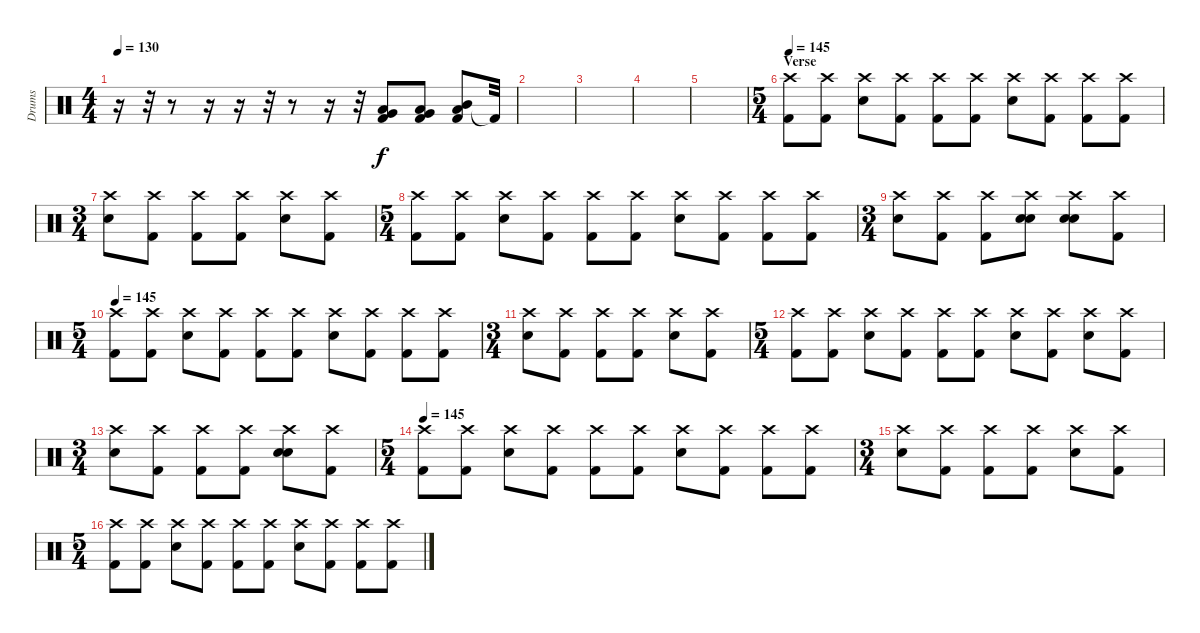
\track ("Drums" "Drums") {instrument percussion}
\staff {score}
\articulation defaults
\ts (4 4)
\tempo 130
\clef neutral
\ks c
r.16{dy f} r.32 r.8 r.16 r.16 r.32 r.8 r.16 r.32 ("Low Tom (hit)" "Very Low Tom (hit)" "Kick (hit) 2").8 ("Low Tom (hit)" "Very Low Tom (hit)" "Kick (hit) 2").8 ("Mid Tom (hit)" "Low Tom (hit)" "Kick (hit) 2").8 "Kick (hit) 2"{t}.32 |
|
|
|
|
\ts (5 4)
\section ("" "Verse")
\tempo 145
("Crash high (hit)" "Kick (hit) 2").8 ("Crash high (hit)" "Kick (hit) 2").8 ("Crash high (hit)" "Electric Snare (hit)").8 ("Crash high (hit)" "Kick (hit) 2").8 ("Crash high (hit)" "Kick (hit) 2").8 ("Crash high (hit)" "Kick (hit) 2").8 ("Crash high (hit)" "Electric Snare (hit)").8 ("Crash high (hit)" "Kick (hit) 2").8 ("Crash high (hit)" "Kick (hit) 2").8 ("Crash high (hit)" "Kick (hit) 2").8 |
\ts (3 4)
("Crash high (hit)" "Electric Snare (hit)").8 ("Crash high (hit)" "Kick (hit) 2").8 ("Crash high (hit)" "Kick (hit) 2").8 ("Crash high (hit)" "Kick (hit) 2").8 ("Crash high (hit)" "Electric Snare (hit)").8 ("Crash high (hit)" "Kick (hit) 2").8 |
\ts (5 4)
("Crash high (hit)" "Kick (hit) 2").8 ("Crash high (hit)" "Kick (hit) 2").8 ("Crash high (hit)" "Electric Snare (hit)").8 ("Crash high (hit)" "Kick (hit) 2").8 ("Crash high (hit)" "Kick (hit) 2").8 ("Crash high (hit)" "Kick (hit) 2").8 ("Crash high (hit)" "Electric Snare (hit)").8 ("Crash high (hit)" "Kick (hit) 2").8 ("Crash high (hit)" "Kick (hit) 2").8 ("Crash high (hit)" "Kick (hit) 2").8 |
\ts (3 4)
("Crash high (hit)" "Electric Snare (hit)").8 ("Crash high (hit)" "Kick (hit) 2").8 ("Crash high (hit)" "Kick (hit) 2").8 ("Crash high (hit)" "Electric Snare (hit)" "Snare (hit) 2").8 ("Crash high (hit)" "Electric Snare (hit)" "Snare (hit) 2").8 ("Crash high (hit)" "Kick (hit) 2").8 |
\ts (5 4)
\tempo 145
("Crash high (hit)" "Kick (hit) 2").8 ("Crash high (hit)" "Kick (hit) 2").8 ("Crash high (hit)" "Electric Snare (hit)").8 ("Crash high (hit)" "Kick (hit) 2").8 ("Crash high (hit)" "Kick (hit) 2").8 ("Crash high (hit)" "Kick (hit) 2").8 ("Crash high (hit)" "Electric Snare (hit)").8 ("Crash high (hit)" "Kick (hit) 2").8 ("Crash high (hit)" "Kick (hit) 2").8 ("Crash high (hit)" "Kick (hit) 2").8 |
\ts (3 4)
("Crash high (hit)" "Electric Snare (hit)").8 ("Crash high (hit)" "Kick (hit) 2").8 ("Crash high (hit)" "Kick (hit) 2").8 ("Crash high (hit)" "Kick (hit) 2").8 ("Crash high (hit)" "Electric Snare (hit)").8 ("Crash high (hit)" "Kick (hit) 2").8 |
\ts (5 4)
("Crash high (hit)" "Kick (hit) 2").8 ("Crash high (hit)" "Kick (hit) 2").8 ("Crash high (hit)" "Electric Snare (hit)").8 ("Crash high (hit)" "Kick (hit) 2").8 ("Crash high (hit)" "Kick (hit) 2").8 ("Crash high (hit)" "Kick (hit) 2").8 ("Crash high (hit)" "Electric Snare (hit)").8 ("Crash high (hit)" "Kick (hit) 2").8 ("Crash high (hit)" "Electric Snare (hit)").8 ("Crash high (hit)" "Kick (hit) 2").8 |
\ts (3 4)
("Crash high (hit)" "Electric Snare (hit)").8 ("Crash high (hit)" "Kick (hit) 2").8 ("Crash high (hit)" "Kick (hit) 2").8 ("Crash high (hit)" "Kick (hit) 2").8 ("Crash high (hit)" "Electric Snare (hit)" "Snare (hit) 2").8 ("Crash high (hit)" "Kick (hit) 2").8 |
\ts (5 4)
\tempo 145
("Crash high (hit)" "Kick (hit) 2").8 ("Crash high (hit)" "Kick (hit) 2").8 ("Crash high (hit)" "Electric Snare (hit)").8 ("Crash high (hit)" "Kick (hit) 2").8 ("Crash high (hit)" "Kick (hit) 2").8 ("Crash high (hit)" "Kick (hit) 2").8 ("Crash high (hit)" "Electric Snare (hit)").8 ("Crash high (hit)" "Kick (hit) 2").8 ("Crash high (hit)" "Kick (hit) 2").8 ("Crash high (hit)" "Kick (hit) 2").8 |
\ts (3 4)
("Crash high (hit)" "Electric Snare (hit)").8 ("Crash high (hit)" "Kick (hit) 2").8 ("Crash high (hit)" "Kick (hit) 2").8 ("Crash high (hit)" "Kick (hit) 2").8 ("Crash high (hit)" "Electric Snare (hit)").8 ("Crash high (hit)" "Kick (hit) 2").8 |
\ts (5 4)
("Crash high (hit)" "Kick (hit) 2").8 ("Crash high (hit)" "Kick (hit) 2").8 ("Crash high (hit)" "Electric Snare (hit)").8 ("Crash high (hit)" "Kick (hit) 2").8 ("Crash high (hit)" "Kick (hit) 2").8 ("Crash high (hit)" "Kick (hit) 2").8 ("Crash high (hit)" "Electric Snare (hit)").8 ("Crash high (hit)" "Kick (hit) 2").8 ("Crash high (hit)" "Kick (hit) 2").8 ("Crash high (hit)" "Kick (hit) 2").8
